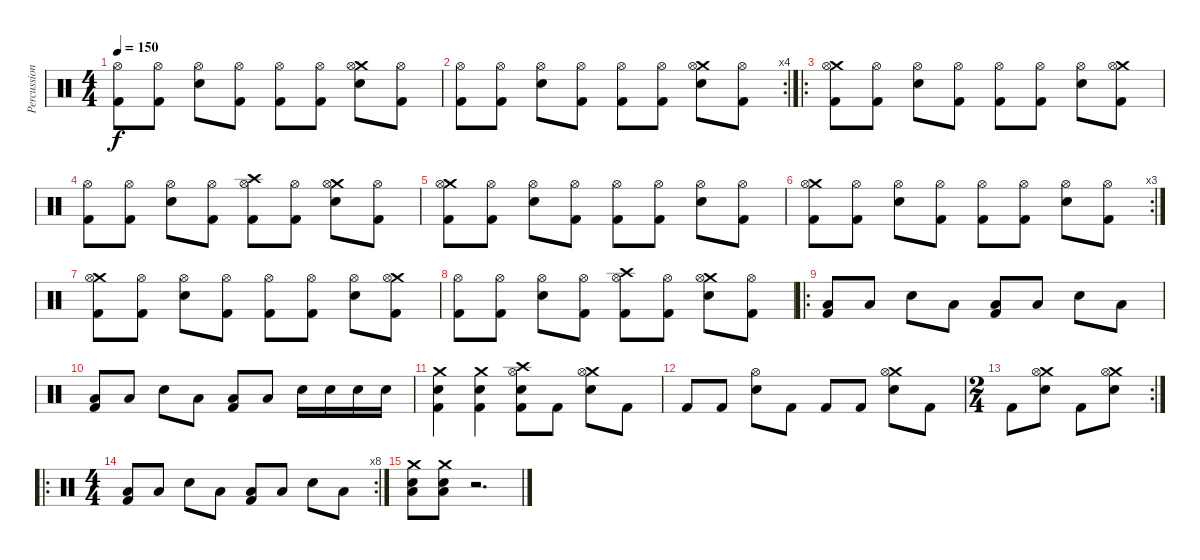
\track ("Percussion" "Percussion") {instrument percussion}
\staff {score}
\articulation defaults
\ts (4 4)
\tempo 150
\clef neutral
\ks c
("Hi-Hat (open)" "Kick (hit) 2").8{dy f} ("Hi-Hat (open)" "Kick (hit) 2").8 ("Hi-Hat (open)" "Snare (hit) 2").8 ("Hi-Hat (open)" "Kick (hit) 2").8 ("Hi-Hat (open)" "Kick (hit) 2").8 ("Hi-Hat (open)" "Kick (hit) 2").8 ("Crash medium (hit)" "Hi-Hat (open)" "Snare (hit) 2").8 ("Hi-Hat (open)" "Kick (hit) 2").8 |
\rc 4
("Hi-Hat (open)" "Kick (hit) 2").8 ("Hi-Hat (open)" "Kick (hit) 2").8 ("Hi-Hat (open)" "Snare (hit) 2").8 ("Hi-Hat (open)" "Kick (hit) 2").8 ("Hi-Hat (open)" "Kick (hit) 2").8 ("Hi-Hat (open)" "Kick (hit) 2").8 ("Crash medium (hit)" "Hi-Hat (open)" "Snare (hit) 2").8 ("Hi-Hat (open)" "Kick (hit) 2").8 |
\ro
("Crash medium (hit)" "Hi-Hat (open)" "Kick (hit) 2").8 ("Hi-Hat (open)" "Kick (hit) 2").8 ("Hi-Hat (open)" "Snare (hit) 2").8 ("Hi-Hat (open)" "Kick (hit) 2").8 ("Hi-Hat (open)" "Kick (hit) 2").8 ("Hi-Hat (open)" "Kick (hit) 2").8 ("Hi-Hat (open)" "Snare (hit) 2").8 ("Crash medium (hit)" "Hi-Hat (open)" "Kick (hit) 2").8 |
("Hi-Hat (open)" "Kick (hit) 2").8 ("Hi-Hat (open)" "Kick (hit) 2").8 ("Hi-Hat (open)" "Snare (hit) 2").8 ("Hi-Hat (open)" "Kick (hit) 2").8 ("Crash high (hit)" "Hi-Hat (open)" "Kick (hit) 2").8 ("Hi-Hat (open)" "Kick (hit) 2").8 ("Crash medium (hit)" "Hi-Hat (open)" "Snare (hit) 2").8 ("Hi-Hat (open)" "Kick (hit) 2").8 |
("Crash medium (hit)" "Hi-Hat (open)" "Kick (hit) 2").8 ("Hi-Hat (open)" "Kick (hit) 2").8 ("Hi-Hat (open)" "Snare (hit) 2").8 ("Hi-Hat (open)" "Kick (hit) 2").8 ("Hi-Hat (open)" "Kick (hit) 2").8 ("Hi-Hat (open)" "Kick (hit) 2").8 ("Hi-Hat (open)" "Snare (hit) 2").8 ("Hi-Hat (open)" "Kick (hit) 2").8 |
\rc 3
("Crash medium (hit)" "Hi-Hat (open)" "Kick (hit) 2").8 ("Hi-Hat (open)" "Kick (hit) 2").8 ("Hi-Hat (open)" "Snare (hit) 2").8 ("Hi-Hat (open)" "Kick (hit) 2").8 ("Hi-Hat (open)" "Kick (hit) 2").8 ("Hi-Hat (open)" "Kick (hit) 2").8 ("Hi-Hat (open)" "Snare (hit) 2").8 ("Hi-Hat (open)" "Kick (hit) 2").8 |
("Crash medium (hit)" "Hi-Hat (open)" "Kick (hit) 2").8 ("Hi-Hat (open)" "Kick (hit) 2").8 ("Hi-Hat (open)" "Snare (hit) 2").8 ("Hi-Hat (open)" "Kick (hit) 2").8 ("Hi-Hat (open)" "Kick (hit) 2").8 ("Hi-Hat (open)" "Kick (hit) 2").8 ("Hi-Hat (open)" "Snare (hit) 2").8 ("Crash medium (hit)" "Hi-Hat (open)" "Kick (hit) 2").8 |
("Hi-Hat (open)" "Kick (hit) 2").8 ("Hi-Hat (open)" "Kick (hit) 2").8 ("Hi-Hat (open)" "Snare (hit) 2").8 ("Hi-Hat (open)" "Kick (hit) 2").8 ("Crash high (hit)" "Hi-Hat (open)" "Kick (hit) 2").8 ("Hi-Hat (open)" "Kick (hit) 2").8 ("Crash medium (hit)" "Hi-Hat (open)" "Snare (hit) 2").8 ("Hi-Hat (open)" "Kick (hit) 2").8 |
\ro
("Low Floor Tom (hit)" "Kick (hit) 2").8 "Low Floor Tom (hit)".8 "Snare (hit) 2".8 "Low Floor Tom (hit)".8 ("Low Floor Tom (hit)" "Kick (hit) 2").8 "Low Floor Tom (hit)".8 "Snare (hit) 2".8 "Low Floor Tom (hit)".8 |
("Low Floor Tom (hit)" "Kick (hit) 2").8 "Low Floor Tom (hit)".8 "Snare (hit) 2".8 "Low Floor Tom (hit)".8 ("Low Floor Tom (hit)" "Kick (hit) 2").8 "Low Floor Tom (hit)".8 "Snare (hit) 2".16 "Snare (hit) 2".16 "Snare (hit) 2".16 "Snare (hit) 2".16 |
("Crash medium (hit)" "Snare (hit) 2" "Kick (hit) 2").4 ("Crash medium (hit)" "Snare (hit) 2" "Kick (hit) 2").4 ("Crash high (hit)" "Hi-Hat (open)" "Snare (hit) 2" "Kick (hit) 2").8 "Kick (hit) 2".8 ("Crash medium (hit)" "Hi-Hat (open)" "Snare (hit) 2").8 "Kick (hit) 2".8 |
"Kick (hit) 2".8 "Kick (hit) 2".8 ("Hi-Hat (open)" "Snare (hit) 2").8 "Kick (hit) 2".8 "Kick (hit) 2".8 "Kick (hit) 2".8 ("Crash medium (hit)" "Hi-Hat (open)" "Snare (hit) 2").8 "Kick (hit) 2".8 |
\rc 2
\ts (2 4)
"Kick (hit) 2".8 ("Crash medium (hit)" "Hi-Hat (open)" "Snare (hit) 2").8 "Kick (hit) 2".8 ("Crash medium (hit)" "Hi-Hat (open)" "Snare (hit) 2").8 |
\ro
\rc 8
\ts (4 4)
("Low Floor Tom (hit)" "Kick (hit) 2").8 "Low Floor Tom (hit)".8 "Snare (hit) 2".8 "Low Floor Tom (hit)".8 ("Low Floor Tom (hit)" "Kick (hit) 2").8 "Low Floor Tom (hit)".8 "Snare (hit) 2".8 "Low Floor Tom (hit)".8 |
("Crash medium (hit)" "Low Floor Tom (hit)" "Snare (hit) 2").8 ("Crash medium (hit)" "Low Floor Tom (hit)" "Snare (hit) 2").8 r.2{d}
